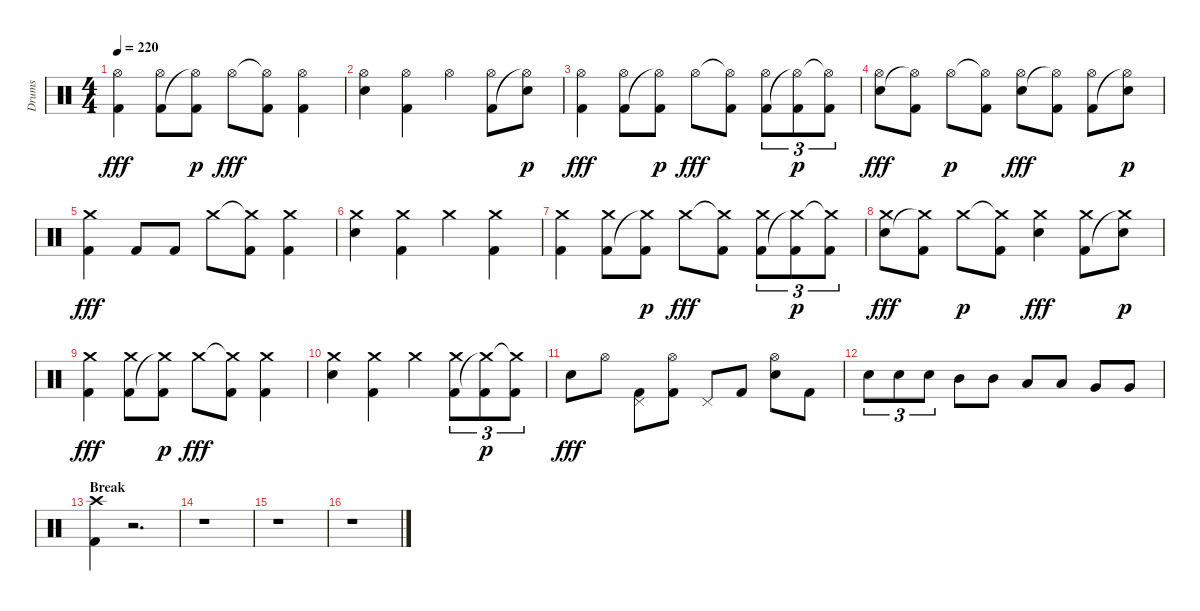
\track ("Drums" "Drums") {instrument percussion}
\staff {score}
\articulation defaults
\ts (4 4)
\tempo 220
\clef neutral
\ks aminor
("Kick (hit) 2" "Hi-Hat (open)").4{dy fff} ("Kick (hit) 2" "Hi-Hat (open)").8 ("Hi-Hat (open)"{t} "Kick (hit) 2").8{dy p} "Hi-Hat (open)".8{dy fff} ("Hi-Hat (open)"{t} "Kick (hit) 2").8 ("Kick (hit) 2" "Hi-Hat (open)").4 |
("Snare (hit) 2" "Hi-Hat (open)").4 ("Kick (hit) 2" "Hi-Hat (open)").4 "Hi-Hat (open)".4 ("Kick (hit) 2" "Hi-Hat (open)").8 ("Hi-Hat (open)"{t} "Snare (hit) 2").8{dy p} |
("Kick (hit) 2" "Hi-Hat (open)").4{dy fff} ("Kick (hit) 2" "Hi-Hat (open)").8 ("Hi-Hat (open)"{t} "Kick (hit) 2").8{dy p} "Hi-Hat (open)".8{dy fff} ("Hi-Hat (open)"{t} "Kick (hit) 2").8 ("Kick (hit) 2" "Hi-Hat (open)").8{tu (3 2)} ("Hi-Hat (open)"{t} "Kick (hit) 2").8{tu (3 2) dy p} ("Hi-Hat (open)"{t} "Kick (hit) 2").8{tu (3 2)} |
("Snare (hit) 2" "Hi-Hat (open)").8{dy fff} ("Hi-Hat (open)"{t} "Kick (hit) 2").8 "Hi-Hat (open)".8{dy p} ("Hi-Hat (open)"{t} "Kick (hit) 2").8 ("Snare (hit) 2" "Hi-Hat (open)").8{dy fff} ("Hi-Hat (open)"{t} "Kick (hit) 2").8 ("Kick (hit) 2" "Hi-Hat (open)").8 ("Hi-Hat (open)"{t} "Snare (hit) 2").8{dy p} |
("Kick (hit) 2" "Crash medium (hit)").4{dy fff} "Kick (hit) 2".8 "Kick (hit) 2".8 "Crash medium (hit)".8 ("Crash medium (hit)"{t} "Kick (hit) 2").8 ("Kick (hit) 2" "Crash medium (hit)").4 |
("Snare (hit) 2" "Crash medium (hit)").4 ("Kick (hit) 2" "Crash medium (hit)").4 "Crash medium (hit)".4 ("Kick (hit) 2" "Crash medium (hit)").4 |
("Kick (hit) 2" "Crash medium (hit)").4 ("Kick (hit) 2" "Crash medium (hit)").8 ("Crash medium (hit)"{t} "Kick (hit) 2").8{dy p} "Crash medium (hit)".8{dy fff} ("Crash medium (hit)"{t} "Kick (hit) 2").8 ("Kick (hit) 2" "Crash medium (hit)").8{tu (3 2)} ("Crash medium (hit)"{t} "Kick (hit) 2").8{tu (3 2) dy p} ("Crash medium (hit)"{t} "Kick (hit) 2").8{tu (3 2)} |
("Snare (hit) 2" "Crash medium (hit)").8{dy fff} ("Crash medium (hit)"{t} "Kick (hit) 2").8 "Crash medium (hit)".8{dy p} ("Crash medium (hit)"{t} "Kick (hit) 2").8 ("Snare (hit) 2" "Crash medium (hit)").4{dy fff} ("Kick (hit) 2" "Crash medium (hit)").8 ("Crash medium (hit)"{t} "Snare (hit) 2").8{dy p} |
("Kick (hit) 2" "Crash medium (hit)").4{dy fff} ("Kick (hit) 2" "Crash medium (hit)").8 ("Crash medium (hit)"{t} "Kick (hit) 2").8{dy p} "Crash medium (hit)".8{dy fff} ("Crash medium (hit)"{t} "Kick (hit) 2").8 ("Kick (hit) 2" "Crash medium (hit)").4 |
("Snare (hit) 2" "Crash medium (hit)").4 ("Kick (hit) 2" "Crash medium (hit)").4 "Crash medium (hit)".4 ("Kick (hit) 2" "Crash medium (hit)").8{tu (3 2)} ("Crash medium (hit)"{t} "Kick (hit) 2").8{tu (3 2) dy p} ("Crash medium (hit)"{t} "Kick (hit) 2").8{tu (3 2)} |
"Snare (hit) 2".8{dy fff} "Hi-Hat (open)".8 ("Kick (hit) 2" "Pedal Hi-Hat (hit)").8 ("Kick (hit) 2" "Hi-Hat (open)").8 "Pedal Hi-Hat (hit)".8 "Kick (hit) 2".8 ("Snare (hit) 2" "Hi-Hat (open)").8 "Kick (hit) 2".8 |
"Snare (hit) 2".8{tu (3 2)} "Snare (hit) 2".8{tu (3 2)} "Snare (hit) 2".8{tu (3 2)} "Mid Tom (hit)".8 "Mid Tom (hit)".8 "Low Tom (hit)".8 "Low Tom (hit)".8 "Very Low Tom (hit)".8 "Very Low Tom (hit)".8 |
\section ("" "Break")
("Kick (hit) 2" "Crash high (hit)").4 r.2{d} |
r.1 |
r.1 |
r.1
